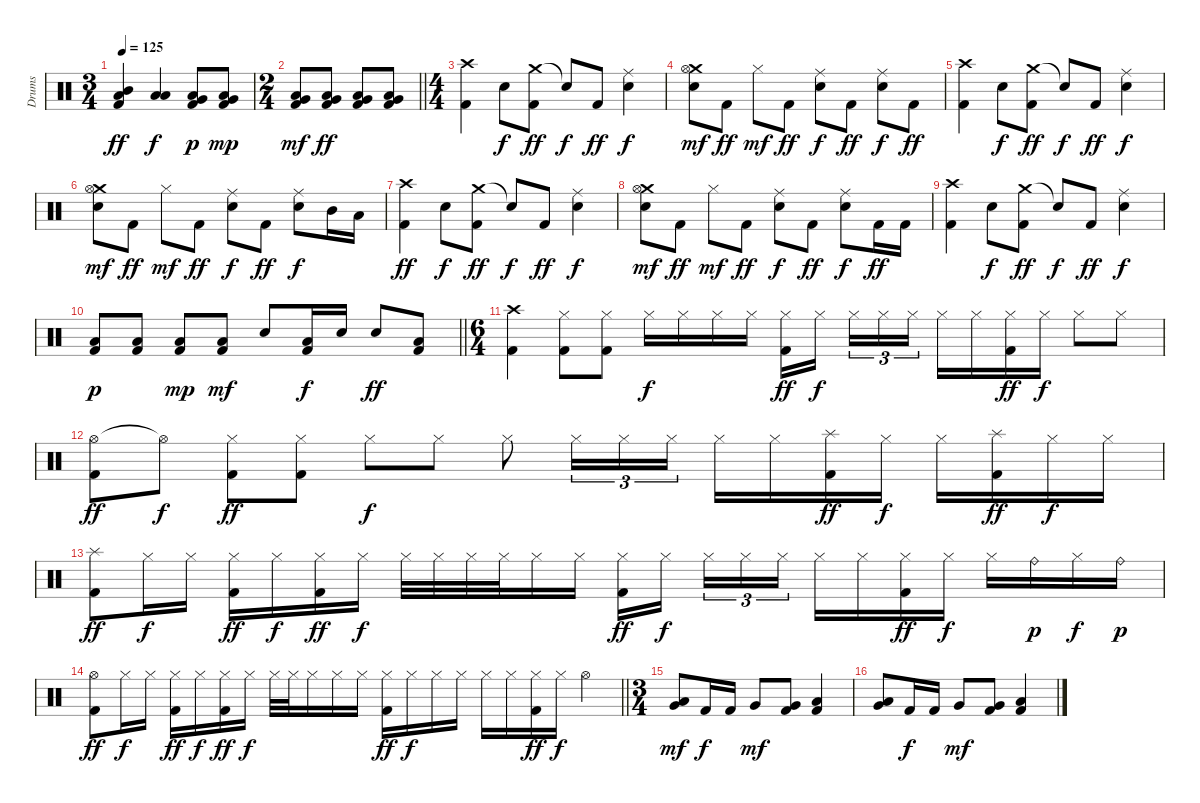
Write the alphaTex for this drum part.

\track ("Drums" "Drums") {instrument percussion}
\staff {score}
\articulation defaults
\ts (3 4)
\tempo 125
\clef neutral
\ks c
("Mid Tom (hit)" "Low Floor Tom (hit)" "Kick (hit) 2").4{dy ff} ("Low Tom (hit)" "Low Floor Tom (hit)").4{dy f} ("Low Tom (hit)" "Very Low Tom (hit)" "Kick (hit) 2").8{dy p} ("Low Tom (hit)" "Very Low Tom (hit)" "Kick (hit) 2").8{dy mp} |
\ts (2 4)
\barLineRight lightlight
("Low Tom (hit)" "Very Low Tom (hit)" "Kick (hit) 2").8{dy mf} ("Low Tom (hit)" "Very Low Tom (hit)" "Kick (hit) 2").8{dy ff} ("Low Tom (hit)" "Very Low Tom (hit)" "Kick (hit) 2").8 ("Low Tom (hit)" "Very Low Tom (hit)" "Kick (hit) 2").8 |
\ts (4 4)
("Crash high (hit)" "Kick (hit) 2").4 "Snare (hit) 2".8{dy f} ("Crash medium (hit)" "Kick (hit) 2").8{dy ff} "Snare (hit)"{t}.8{dy f} "Kick (hit) 2".8{dy ff} ("Ride (middle)" "Snare (hit) 2").4{dy f} |
("Crash medium (hit)" "Hi-Hat (open)" "Snare (hit) 2").8{dy mf} "Kick (hit) 2".8{dy ff} "Hi-Hat (closed)".8{dy mf} "Kick (hit) 2".8{dy ff} ("Ride (middle)" "Snare (hit) 2").8{dy f} "Kick (hit) 2".8{dy ff} ("Ride (middle)" "Snare (hit) 2").8{dy f} "Kick (hit) 2".8{dy ff} |
("Crash high (hit)" "Kick (hit) 2").4 "Snare (hit) 2".8{dy f} ("Crash medium (hit)" "Kick (hit) 2").8{dy ff} "Snare (hit)"{t}.8{dy f} "Kick (hit) 2".8{dy ff} ("Ride (middle)" "Snare (hit) 2").4{dy f} |
("Crash medium (hit)" "Hi-Hat (open)" "Snare (hit) 2").8{dy mf} "Kick (hit) 2".8{dy ff} "Hi-Hat (closed)".8{dy mf} "Kick (hit) 2".8{dy ff} ("Ride (middle)" "Snare (hit) 2").8{dy f} "Kick (hit) 2".8{dy ff} ("Ride (middle)" "Snare (hit) 2").8{dy f} "Mid Tom (hit)".16 "Low Tom (hit)".16 |
("Crash high (hit)" "Kick (hit) 2").4{dy ff} "Snare (hit) 2".8{dy f} ("Crash medium (hit)" "Kick (hit) 2").8{dy ff} "Snare (hit)"{t}.8{dy f} "Kick (hit) 2".8{dy ff} ("Ride (middle)" "Snare (hit) 2").4{dy f} |
("Crash medium (hit)" "Hi-Hat (open)" "Snare (hit) 2").8{dy mf} "Kick (hit) 2".8{dy ff} "Hi-Hat (closed)".8{dy mf} "Kick (hit) 2".8{dy ff} ("Ride (middle)" "Snare (hit) 2").8{dy f} "Kick (hit) 2".8{dy ff} ("Ride (middle)" "Snare (hit) 2").8{dy f} "Kick (hit) 2".16{dy ff} "Kick (hit) 2".16 |
("Crash high (hit)" "Kick (hit) 2").4 "Snare (hit) 2".8{dy f} ("Crash medium (hit)" "Kick (hit) 2").8{dy ff} "Snare (hit)"{t}.8{dy f} "Kick (hit) 2".8{dy ff} ("Ride (middle)" "Snare (hit) 2").4{dy f} |
\barLineRight lightlight
("Low Floor Tom (hit)" "Kick (hit) 2").8{dy p} ("Low Floor Tom (hit)" "Kick (hit) 2").8 ("Low Floor Tom (hit)" "Kick (hit) 2").8{dy mp} ("Low Floor Tom (hit)" "Kick (hit) 2").8{dy mf} "Snare (hit) 2".8 ("Low Floor Tom (hit)" "Kick (hit) 2").16{dy f} "Snare (hit) 2".16 "Snare (hit) 2".8{dy ff} ("Low Floor Tom (hit)" "Kick (hit) 2").8 |
\ts (6 4)
\section ("" "")
("Crash high (hit)" "Kick (hit) 2").4 ("Hi-Hat (closed)" "Kick (hit) 2").8 ("Hi-Hat (closed)" "Kick (hit) 2").8 "Hi-Hat (closed)".16{dy f} "Hi-Hat (closed)".16 "Hi-Hat (closed)".16 "Hi-Hat (closed)".16 ("Hi-Hat (closed)" "Kick (hit) 2").16{dy ff} "Hi-Hat (closed)".16{dy f beam splitsecondary} "Hi-Hat (closed)".16{tu (3 2)} "Hi-Hat (closed)".16{tu (3 2)} "Hi-Hat (closed)".16{tu (3 2) beam splitsecondary} "Hi-Hat (closed)".16 "Hi-Hat (closed)".16 ("Hi-Hat (closed)" "Kick (hit) 2").16{dy ff} "Hi-Hat (closed)".16{dy f} "Hi-Hat (closed)".8 "Hi-Hat (closed)".8 |
("Hi-Hat (open)" "Kick (hit) 2").8{dy ff} "Hi-Hat (open)"{t}.8{dy f} ("Hi-Hat (closed)" "Kick (hit) 2").8{dy ff} ("Hi-Hat (closed)" "Kick (hit) 2").8 "Hi-Hat (closed)".8{dy f} "Hi-Hat (closed)".8 "Hi-Hat (closed)".8 "Hi-Hat (closed)".16{tu (3 2)} "Hi-Hat (closed)".16{tu (3 2)} "Hi-Hat (closed)".16{tu (3 2) beam splitsecondary} "Hi-Hat (closed)".16 "Hi-Hat (closed)".16 ("Splash (hit)" "Kick (hit) 2").16{dy ff} "Hi-Hat (closed)".16{dy f} "Hi-Hat (closed)".16 ("Splash (hit)" "Kick (hit) 2").16{dy ff} "Hi-Hat (closed)".16{dy f} "Hi-Hat (closed)".16 |
("Splash (hit)" "Kick (hit) 2").8{dy ff} "Hi-Hat (closed)".16{dy f} "Hi-Hat (closed)".16 ("Hi-Hat (closed)" "Kick (hit) 2").16{dy ff} "Hi-Hat (closed)".16{dy f} ("Hi-Hat (closed)" "Kick (hit) 2").16{dy ff} "Hi-Hat (closed)".16{dy f} "Hi-Hat (closed)".32 "Hi-Hat (closed)".32 "Hi-Hat (closed)".32 "Hi-Hat (closed)".32 "Hi-Hat (closed)".16 "Hi-Hat (closed)".16 ("Hi-Hat (closed)" "Kick (hit) 2").16{dy ff} "Hi-Hat (closed)".16{dy f beam splitsecondary} "Hi-Hat (closed)".16{tu (3 2)} "Hi-Hat (closed)".16{tu (3 2)} "Hi-Hat (closed)".16{tu (3 2) beam splitsecondary} "Hi-Hat (closed)".16 "Hi-Hat (closed)".16 ("Hi-Hat (closed)" "Kick (hit) 2").16{dy ff} "Hi-Hat (closed)".16{dy f} "Hi-Hat (closed)".16 "Ride (bell)".16{dy p} "Hi-Hat (closed)".16{dy f} "Ride (bell)".16{dy p} |
\barLineRight lightlight
("Hi-Hat (open)" "Kick (hit) 2").8{dy ff} "Hi-Hat (closed)".16{dy f} "Hi-Hat (closed)".16 ("Hi-Hat (closed)" "Kick (hit) 2").16{dy ff} "Hi-Hat (closed)".16{dy f} ("Hi-Hat (closed)" "Kick (hit) 2").16{dy ff} "Hi-Hat (closed)".16{dy f} "Hi-Hat (closed)".32 "Hi-Hat (closed)".32 "Hi-Hat (closed)".16 "Hi-Hat (closed)".16 "Hi-Hat (closed)".16 ("Hi-Hat (closed)" "Kick (hit) 2").16{dy ff} "Hi-Hat (closed)".16{dy f} "Hi-Hat (closed)".16 "Hi-Hat (closed)".16 "Hi-Hat (closed)".16 "Hi-Hat (closed)".16 ("Hi-Hat (closed)" "Kick (hit) 2").16{dy ff} "Hi-Hat (closed)".16{dy f} "Hi-Hat (open)".4 |
\ts (3 4)
\section ("" "")
("Low Tom (hit)" "Very Low Tom (hit)").8{dy mf} "Kick (hit) 2".16{dy f} "Kick (hit) 2".16 "Very Low Tom (hit)".8{dy mf} ("Very Low Tom (hit)" "Kick (hit) 2").8 ("Low Tom (hit)" "Kick (hit) 2").4 |
("Low Tom (hit)" "Very Low Tom (hit)").8 "Kick (hit) 2".16{dy f} "Kick (hit) 2".16 "Very Low Tom (hit)".8{dy mf} ("Very Low Tom (hit)" "Kick (hit) 2").8 ("Low Tom (hit)" "Kick (hit) 2").4
